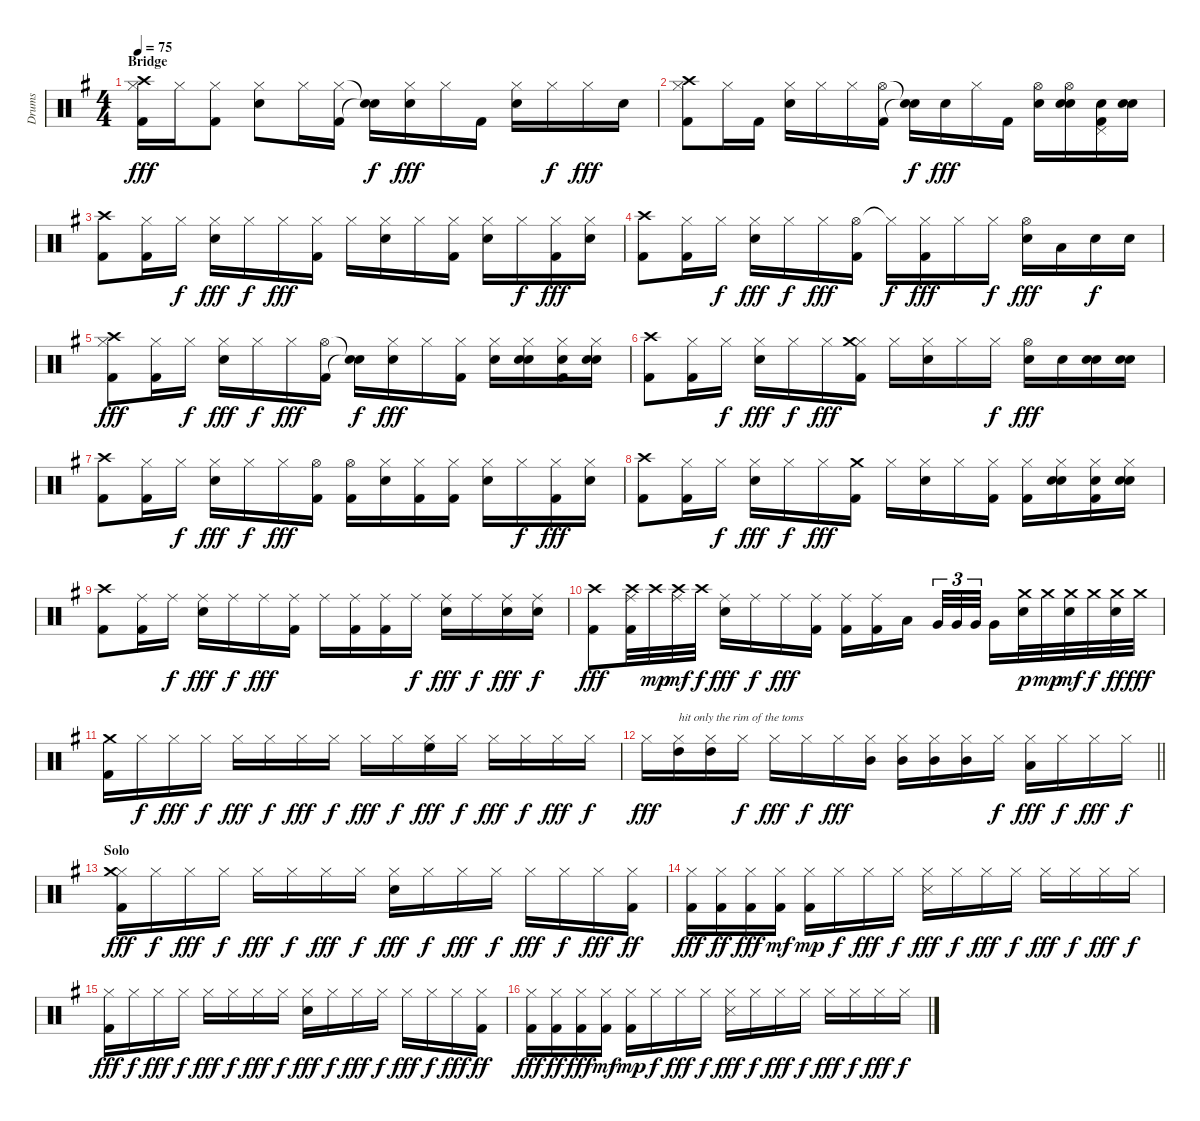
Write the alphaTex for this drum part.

\track ("Drums" "Drums") {instrument percussion}
\staff {score}
\articulation defaults
\ts (4 4)
\section ("" "Bridge")
\tempo 75
\clef neutral
\ks g
("Hi-Hat (closed)" "Crash high (hit)" "Kick (hit) 2").16{dy fff} "Hi-Hat (closed)".16 ("Hi-Hat (closed)" "Kick (hit) 2").8 ("Hi-Hat (closed)" "Snare (hit) 2").8 "Hi-Hat (closed)".16 ("Hi-Hat (closed)" "Kick (hit) 2").16 ("Snare (hit)"{t} "Snare (hit)"{t}).16{dy f} ("Hi-Hat (closed)" "Snare (hit) 2").16{dy fff} "Hi-Hat (closed)".16 "Kick (hit) 2".16 ("Hi-Hat (closed)" "Snare (hit) 2").16 "Hi-Hat (closed)".16{dy f} "Hi-Hat (closed)".16{dy fff} "Snare (hit) 2".16 |
("Hi-Hat (closed)" "Crash high (hit)" "Kick (hit) 2").8 "Hi-Hat (closed)".16 "Kick (hit) 2".16 ("Hi-Hat (closed)" "Snare (hit) 2").16 "Hi-Hat (closed)".16 "Hi-Hat (closed)".16 ("Hi-Hat (open)" "Kick (hit) 2").16 ("Snare (hit)"{t} "Snare (hit)"{t}).16{dy f} "Snare (hit) 2".16{dy fff} "Hi-Hat (closed)".16 "Kick (hit) 2".16 ("Hi-Hat (open)" "Snare (hit) 2").16 ("Hi-Hat (open)" "Hand Clap (hit)" "Snare (hit) 2").16 ("Pedal Hi-Hat (hit)" "Hand Clap (hit)" "Kick (hit) 2").16 ("Hand Clap (hit)" "Snare (hit) 2").16 |
("Crash high (hit)" "Kick (hit) 2").8 ("Hi-Hat (closed)" "Kick (hit) 2").16 "Hi-Hat (closed)".16{dy f} ("Hi-Hat (closed)" "Snare (hit) 2").16{dy fff} "Hi-Hat (closed)".16{dy f} "Hi-Hat (closed)".16{dy fff} ("Hi-Hat (closed)" "Kick (hit) 2").16 "Hi-Hat (closed)".16 ("Hi-Hat (closed)" "Snare (hit) 2").16 "Hi-Hat (closed)".16 ("Hi-Hat (closed)" "Kick (hit) 2").16 ("Hi-Hat (closed)" "Snare (hit) 2").16 "Hi-Hat (closed)".16{dy f} ("Hi-Hat (closed)" "Kick (hit) 2").16{dy fff} ("Hi-Hat (closed)" "Snare (hit) 2").16 |
("Crash high (hit)" "Kick (hit) 2").8 ("Hi-Hat (closed)" "Kick (hit) 2").16 "Hi-Hat (closed)".16{dy f} ("Hi-Hat (closed)" "Snare (hit) 2").16{dy fff} "Hi-Hat (closed)".16{dy f} "Hi-Hat (closed)".16{dy fff} ("Hi-Hat (open)" "Kick (hit) 2").16 "Hi-Hat (closed)"{t}.16{dy f} ("Hi-Hat (closed)" "Kick (hit) 2").16{dy fff} "Hi-Hat (closed)".16 "Hi-Hat (closed)".16{dy f} ("Hi-Hat (open)" "Snare (hit) 2").16{dy fff} "Low Tom (hit)".16 "Hand Clap (hit)".16{dy f} "Hand Clap (hit)".16 |
("Hi-Hat (closed)" "Crash high (hit)" "Kick (hit) 2").8{dy fff} ("Hi-Hat (closed)" "Kick (hit) 2").16 "Hi-Hat (closed)".16{dy f} ("Hi-Hat (closed)" "Snare (hit) 2").16{dy fff} "Hi-Hat (closed)".16{dy f} "Hi-Hat (closed)".16{dy fff} ("Hi-Hat (open)" "Kick (hit) 2").16 ("Snare (hit)"{t} "Snare (hit)"{t}).16{dy f} ("Hi-Hat (closed)" "Snare (hit) 2").16{dy fff} "Hi-Hat (closed)".16 ("Hi-Hat (closed)" "Kick (hit) 2").16 ("Hi-Hat (closed)" "Snare (hit) 2").16 ("Hi-Hat (closed)" "Hand Clap (hit)" "Snare (hit) 2").16 ("Hi-Hat (closed)" "Hand Clap (hit)" "Kick (hit) 2").16 ("Hi-Hat (closed)" "Hand Clap (hit)" "Snare (hit) 2").16 |
("Crash high (hit)" "Kick (hit) 2").8 ("Hi-Hat (closed)" "Kick (hit) 2").16 "Hi-Hat (closed)".16{dy f} ("Hi-Hat (closed)" "Snare (hit) 2").16{dy fff} "Hi-Hat (closed)".16{dy f} "Hi-Hat (closed)".16{dy fff} ("Hi-Hat (closed)" "Crash medium (hit)" "Kick (hit) 2").16 "Hi-Hat (closed)".16 ("Hi-Hat (closed)" "Snare (hit) 2").16 "Hi-Hat (closed)".16 "Hi-Hat (closed)".16{dy f} ("Hi-Hat (open)" "Snare (hit) 2").16{dy fff} "Snare (hit) 2".16 ("Hand Clap (hit)" "Snare (hit) 2").16 ("Hand Clap (hit)" "Snare (hit) 2").16 |
("Crash high (hit)" "Kick (hit) 2").8 ("Hi-Hat (closed)" "Kick (hit) 2").16 "Hi-Hat (closed)".16{dy f} ("Hi-Hat (closed)" "Snare (hit) 2").16{dy fff} "Hi-Hat (closed)".16{dy f} "Hi-Hat (closed)".16{dy fff} ("Hi-Hat (open)" "Kick (hit) 2").16 ("Hi-Hat (open)" "Kick (hit) 2").16 ("Hi-Hat (closed)" "Snare (hit) 2").16 ("Hi-Hat (closed)" "Kick (hit) 2").16 ("Hi-Hat (closed)" "Kick (hit) 2").16 ("Hi-Hat (closed)" "Snare (hit) 2").16 "Hi-Hat (closed)".16{dy f} ("Hi-Hat (closed)" "Kick (hit) 2").16{dy fff} ("Hi-Hat (closed)" "Snare (hit) 2").16 |
("Crash high (hit)" "Kick (hit) 2").8 ("Hi-Hat (closed)" "Kick (hit) 2").16 "Hi-Hat (closed)".16{dy f} ("Hi-Hat (closed)" "Snare (hit) 2").16{dy fff} "Hi-Hat (closed)".16{dy f} "Hi-Hat (closed)".16{dy fff} ("Crash medium (hit)" "Kick (hit) 2").16 "Hi-Hat (closed)".16 ("Hi-Hat (closed)" "Snare (hit) 2").16 "Hi-Hat (closed)".16 ("Hi-Hat (closed)" "Kick (hit) 2").16 ("Hi-Hat (closed)" "Kick (hit) 2").16 ("Hi-Hat (closed)" "Hand Clap (hit)" "Snare (hit) 2").16 ("Hi-Hat (closed)" "Hand Clap (hit)" "Kick (hit) 2").16 ("Hi-Hat (closed)" "Hand Clap (hit)" "Snare (hit) 2").16 |
("Crash high (hit)" "Kick (hit) 2").8 ("Ride (middle)" "Kick (hit) 2").16 "Ride (middle)".16{dy f} ("Ride (middle)" "Snare (hit) 2").16{dy fff} "Ride (middle)".16{dy f} "Ride (middle)".16{dy fff} ("Ride (middle)" "Kick (hit) 2").16 "Ride (middle)".16 ("Ride (middle)" "Kick (hit) 2").16 ("Ride (middle)" "Kick (hit) 2").16 "Ride (middle)".16{dy f} ("Ride (middle)" "Snare (hit) 2").16{dy fff} "Ride (middle)".16{dy f} ("Ride (middle)" "Hand Clap (hit)").16{dy fff} ("Ride (middle)" "Hand Clap (hit)").16{dy f} |
("Crash high (hit)" "Kick (hit) 2").8{dy fff} ("Ride (middle)" "Crash high (hit)" "Kick (hit) 2").32 "Crash high (hit)".32{dy mp} ("Ride (middle)" "Crash high (hit)").32{dy mf} "Crash high (hit)".32{dy f} ("Ride (middle)" "Snare (hit) 2").16{dy fff} "Ride (middle)".16{dy f} "Ride (middle)".16{dy fff} ("Ride (middle)" "Kick (hit) 2").16 ("Ride (middle)" "Kick (hit) 2").16 ("Ride (middle)" "Kick (hit) 2").16 "Low Tom (hit)".16 "Very Low Tom (hit)".32{tu (3 2)} "Very Low Tom (hit)".32{tu (3 2)} "Very Low Tom (hit)".32{tu (3 2)} "Very Low Tom (hit)".16 ("Crash medium (hit)" "Hand Clap (hit)").32{dy p} "Crash medium (hit)".32{dy mp} ("Crash medium (hit)" "Hand Clap (hit)").32{dy mf} "Crash medium (hit)".32{dy f} ("Crash medium (hit)" "Hand Clap (hit)").32{dy ff} "Crash medium (hit)".32{dy fff} |
("Crash medium (hit)" "Kick (hit) 2").16 "Hi-Hat (closed)".16{dy f} "Hi-Hat (closed)".16{dy fff} "Hi-Hat (closed)".16{dy f} "Hi-Hat (closed)".16{dy fff} "Hi-Hat (closed)".16{dy f} "Hi-Hat (closed)".16{dy fff} "Hi-Hat (closed)".16{dy f} "Hi-Hat (closed)".16{dy fff} "Hi-Hat (closed)".16{dy f} ("Hi-Hat (closed)" "High Floor Tom (hit)").16{dy fff} "Hi-Hat (closed)".16{dy f} "Hi-Hat (closed)".16{dy fff} "Hi-Hat (closed)".16{dy f} "Hi-Hat (closed)".16{dy fff} "Hi-Hat (closed)".16{dy f} |
\barLineRight lightlight "Hi-Hat (closed)".16{dy fff}
("Hi-Hat (closed)" "High Tom (hit)").16{txt "hit only the rim of the toms"} ("Hi-Hat (closed)" "High Tom (hit)").16 "Hi-Hat (closed)".16{dy f} "Hi-Hat (closed)".16{dy fff} "Hi-Hat (closed)".16{dy f} "Hi-Hat (closed)".16{dy fff} ("Hi-Hat (closed)" "Mid Tom (hit)").16 ("Hi-Hat (closed)" "Mid Tom (hit)").16 ("Hi-Hat (closed)" "Mid Tom (hit)").16 ("Hi-Hat (closed)" "Mid Tom (hit)").16 "Hi-Hat (closed)".16{dy f} ("Hi-Hat (closed)" "Low Tom (hit)").16{dy fff} "Hi-Hat (closed)".16{dy f} "Hi-Hat (closed)".16{dy fff} "Hi-Hat (closed)".16{dy f} |
\section ("" "Solo")
("Hi-Hat (closed)" "Crash medium (hit)" "Kick (hit) 2").16{dy fff} "Hi-Hat (closed)".16{dy f} "Hi-Hat (closed)".16{dy fff} "Hi-Hat (closed)".16{dy f} "Hi-Hat (closed)".16{dy fff} "Hi-Hat (closed)".16{dy f} "Hi-Hat (closed)".16{dy fff} "Hi-Hat (closed)".16{dy f} ("Hi-Hat (closed)" "Snare (hit) 2").16{dy fff} "Hi-Hat (closed)".16{dy f} "Hi-Hat (closed)".16{dy fff} "Hi-Hat (closed)".16{dy f} "Hi-Hat (closed)".16{dy fff} "Hi-Hat (closed)".16{dy f} "Hi-Hat (closed)".16{dy fff} ("Hi-Hat (closed)" "Kick (hit) 2").16{dy ff} |
("Hi-Hat (closed)" "Kick (hit) 2").16{dy fff} ("Hi-Hat (closed)" "Kick (hit) 2").16{dy ff} ("Hi-Hat (closed)" "Kick (hit) 2").16{dy fff} ("Hi-Hat (closed)" "Kick (hit) 2").16{dy mf} ("Hi-Hat (closed)" "Kick (hit) 2").16{dy mp} "Hi-Hat (closed)".16{dy f} "Hi-Hat (closed)".16{dy fff} "Hi-Hat (closed)".16{dy f} ("Hi-Hat (closed)" "Snare (side stick) 3").16{dy fff} "Hi-Hat (closed)".16{dy f} "Hi-Hat (closed)".16{dy fff} "Hi-Hat (closed)".16{dy f} "Hi-Hat (closed)".16{dy fff} "Hi-Hat (closed)".16{dy f} "Hi-Hat (closed)".16{dy fff} "Hi-Hat (closed)".16{dy f} |
("Hi-Hat (closed)" "Kick (hit) 2").16{dy fff} "Hi-Hat (closed)".16{dy f} "Hi-Hat (closed)".16{dy fff} "Hi-Hat (closed)".16{dy f} "Hi-Hat (closed)".16{dy fff} "Hi-Hat (closed)".16{dy f} "Hi-Hat (closed)".16{dy fff} "Hi-Hat (closed)".16{dy f} ("Hi-Hat (closed)" "Snare (hit) 2").16{dy fff} "Hi-Hat (closed)".16{dy f} "Hi-Hat (closed)".16{dy fff} "Hi-Hat (closed)".16{dy f} "Hi-Hat (closed)".16{dy fff} "Hi-Hat (closed)".16{dy f} "Hi-Hat (closed)".16{dy fff} ("Hi-Hat (closed)" "Kick (hit) 2").16{dy ff} |
("Hi-Hat (closed)" "Kick (hit) 2").16{dy fff} ("Hi-Hat (closed)" "Kick (hit) 2").16{dy ff} ("Hi-Hat (closed)" "Kick (hit) 2").16{dy fff} ("Hi-Hat (closed)" "Kick (hit) 2").16{dy mf} ("Hi-Hat (closed)" "Kick (hit) 2").16{dy mp} "Hi-Hat (closed)".16{dy f} "Hi-Hat (closed)".16{dy fff} "Hi-Hat (closed)".16{dy f} ("Hi-Hat (closed)" "Snare (side stick) 3").16{dy fff} "Hi-Hat (closed)".16{dy f} "Hi-Hat (closed)".16{dy fff} "Hi-Hat (closed)".16{dy f} "Hi-Hat (closed)".16{dy fff} "Hi-Hat (closed)".16{dy f} "Hi-Hat (closed)".16{dy fff} "Hi-Hat (closed)".16{dy f}
